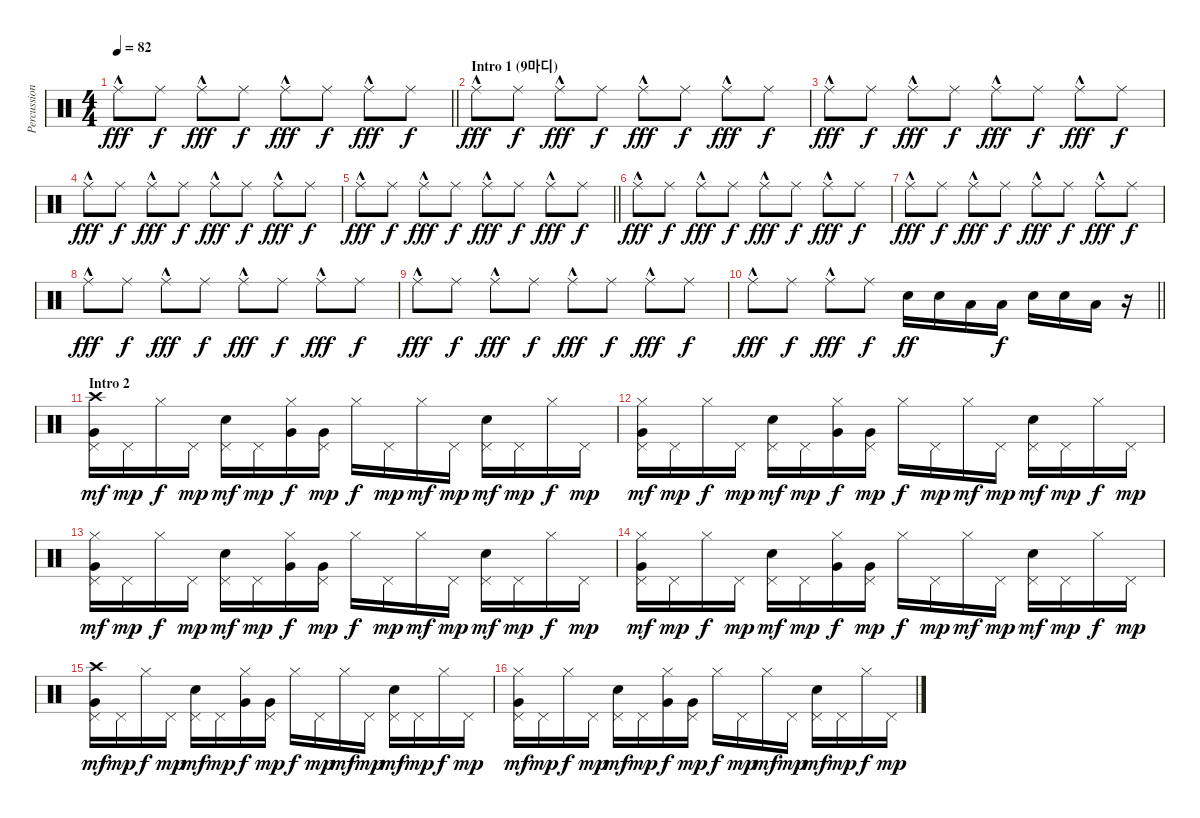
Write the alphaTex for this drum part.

\track ("Percussion" "Percussion") {instrument percussion}
\staff {score}
\articulation defaults
\ts (4 4)
\tempo 82
\clef neutral
\barLineRight lightlight
\ks c "Ride (middle)"{hac}.8{dy fff} "Ride (middle)".8{dy f} "Ride (middle)"{hac}.8{dy fff} "Ride (middle)".8{dy f} "Ride (middle)"{hac}.8{dy fff} "Ride (middle)".8{dy f} "Ride (middle)"{hac}.8{dy fff} "Ride (middle)".8{dy f}
|
\section ("" "Intro 1 (9마디)")
"Ride (middle)"{hac}.8{dy fff} "Ride (middle)".8{dy f} "Ride (middle)"{hac}.8{dy fff} "Ride (middle)".8{dy f} "Ride (middle)"{hac}.8{dy fff} "Ride (middle)".8{dy f} "Ride (middle)"{hac}.8{dy fff} "Ride (middle)".8{dy f} |
"Ride (middle)"{hac}.8{dy fff} "Ride (middle)".8{dy f} "Ride (middle)"{hac}.8{dy fff} "Ride (middle)".8{dy f} "Ride (middle)"{hac}.8{dy fff} "Ride (middle)".8{dy f} "Ride (middle)"{hac}.8{dy fff} "Ride (middle)".8{dy f} |
"Ride (middle)"{hac}.8{dy fff} "Ride (middle)".8{dy f} "Ride (middle)"{hac}.8{dy fff} "Ride (middle)".8{dy f} "Ride (middle)"{hac}.8{dy fff} "Ride (middle)".8{dy f} "Ride (middle)"{hac}.8{dy fff} "Ride (middle)".8{dy f} |
\barLineRight lightlight "Ride (middle)"{hac}.8{dy fff} "Ride (middle)".8{dy f} "Ride (middle)"{hac}.8{dy fff} "Ride (middle)".8{dy f} "Ride (middle)"{hac}.8{dy fff} "Ride (middle)".8{dy f} "Ride (middle)"{hac}.8{dy fff} "Ride (middle)".8{dy f}
|
"Ride (middle)"{hac}.8{dy fff} "Ride (middle)".8{dy f} "Ride (middle)"{hac}.8{dy fff} "Ride (middle)".8{dy f} "Ride (middle)"{hac}.8{dy fff} "Ride (middle)".8{dy f} "Ride (middle)"{hac}.8{dy fff} "Ride (middle)".8{dy f} |
"Ride (middle)"{hac}.8{dy fff} "Ride (middle)".8{dy f} "Ride (middle)"{hac}.8{dy fff} "Ride (middle)".8{dy f} "Ride (middle)"{hac}.8{dy fff} "Ride (middle)".8{dy f} "Ride (middle)"{hac}.8{dy fff} "Ride (middle)".8{dy f} |
"Ride (middle)"{hac}.8{dy fff} "Ride (middle)".8{dy f} "Ride (middle)"{hac}.8{dy fff} "Ride (middle)".8{dy f} "Ride (middle)"{hac}.8{dy fff} "Ride (middle)".8{dy f} "Ride (middle)"{hac}.8{dy fff} "Ride (middle)".8{dy f} |
"Ride (middle)"{hac}.8{dy fff} "Ride (middle)".8{dy f} "Ride (middle)"{hac}.8{dy fff} "Ride (middle)".8{dy f} "Ride (middle)"{hac}.8{dy fff} "Ride (middle)".8{dy f} "Ride (middle)"{hac}.8{dy fff} "Ride (middle)".8{dy f} |
\barLineRight lightlight "Ride (middle)"{hac}.8{dy fff} "Ride (middle)".8{dy f} "Ride (middle)"{hac}.8{dy fff} "Ride (middle)".8{dy f} "Electric Snare (hit)".16{dy ff} "Electric Snare (hit)".16 "Low Tom (hit)".16 "Low Tom (hit)".16{dy f} "Electric Snare (hit)".16 "Electric Snare (hit)".16 "Low Tom (hit)".16
r.16 |
\section ("" "Intro 2")
("Crash high (hit)" "Very Low Tom (hit)" "Pedal Hi-Hat (hit)").16{dy mf} "Pedal Hi-Hat (hit)".16{dy mp} "Hi-Hat (closed)".16{dy f} "Pedal Hi-Hat (hit)".16{dy mp} ("Electric Snare (hit)" "Pedal Hi-Hat (hit)").16{dy mf} "Pedal Hi-Hat (hit)".16{dy mp} ("Hi-Hat (closed)" "Very Low Tom (hit)").16{dy f} ("Very Low Tom (hit)" "Pedal Hi-Hat (hit)").16{dy mp} "Hi-Hat (closed)".16{dy f} "Pedal Hi-Hat (hit)".16{dy mp} "Hi-Hat (closed)".16{dy mf} "Pedal Hi-Hat (hit)".16{dy mp} ("Electric Snare (hit)" "Pedal Hi-Hat (hit)").16{dy mf} "Pedal Hi-Hat (hit)".16{dy mp} "Hi-Hat (closed)".16{dy f} "Pedal Hi-Hat (hit)".16{dy mp} |
("Hi-Hat (closed)" "Very Low Tom (hit)" "Pedal Hi-Hat (hit)").16{dy mf} "Pedal Hi-Hat (hit)".16{dy mp} "Hi-Hat (closed)".16{dy f} "Pedal Hi-Hat (hit)".16{dy mp} ("Electric Snare (hit)" "Pedal Hi-Hat (hit)").16{dy mf} "Pedal Hi-Hat (hit)".16{dy mp} ("Hi-Hat (closed)" "Very Low Tom (hit)").16{dy f} ("Very Low Tom (hit)" "Pedal Hi-Hat (hit)").16{dy mp} "Hi-Hat (closed)".16{dy f} "Pedal Hi-Hat (hit)".16{dy mp} "Hi-Hat (closed)".16{dy mf} "Pedal Hi-Hat (hit)".16{dy mp} ("Electric Snare (hit)" "Pedal Hi-Hat (hit)").16{dy mf} "Pedal Hi-Hat (hit)".16{dy mp} "Hi-Hat (closed)".16{dy f} "Pedal Hi-Hat (hit)".16{dy mp} |
("Hi-Hat (closed)" "Very Low Tom (hit)" "Pedal Hi-Hat (hit)").16{dy mf} "Pedal Hi-Hat (hit)".16{dy mp} "Hi-Hat (closed)".16{dy f} "Pedal Hi-Hat (hit)".16{dy mp} ("Electric Snare (hit)" "Pedal Hi-Hat (hit)").16{dy mf} "Pedal Hi-Hat (hit)".16{dy mp} ("Hi-Hat (closed)" "Very Low Tom (hit)").16{dy f} ("Very Low Tom (hit)" "Pedal Hi-Hat (hit)").16{dy mp} "Hi-Hat (closed)".16{dy f} "Pedal Hi-Hat (hit)".16{dy mp} "Hi-Hat (closed)".16{dy mf} "Pedal Hi-Hat (hit)".16{dy mp} ("Electric Snare (hit)" "Pedal Hi-Hat (hit)").16{dy mf} "Pedal Hi-Hat (hit)".16{dy mp} "Hi-Hat (closed)".16{dy f} "Pedal Hi-Hat (hit)".16{dy mp} |
("Hi-Hat (closed)" "Very Low Tom (hit)" "Pedal Hi-Hat (hit)").16{dy mf} "Pedal Hi-Hat (hit)".16{dy mp} "Hi-Hat (closed)".16{dy f} "Pedal Hi-Hat (hit)".16{dy mp} ("Electric Snare (hit)" "Pedal Hi-Hat (hit)").16{dy mf} "Pedal Hi-Hat (hit)".16{dy mp} ("Hi-Hat (closed)" "Very Low Tom (hit)").16{dy f} ("Very Low Tom (hit)" "Pedal Hi-Hat (hit)").16{dy mp} "Hi-Hat (closed)".16{dy f} "Pedal Hi-Hat (hit)".16{dy mp} "Hi-Hat (closed)".16{dy mf} "Pedal Hi-Hat (hit)".16{dy mp} ("Electric Snare (hit)" "Pedal Hi-Hat (hit)").16{dy mf} "Pedal Hi-Hat (hit)".16{dy mp} "Hi-Hat (closed)".16{dy f} "Pedal Hi-Hat (hit)".16{dy mp} |
("Crash high (hit)" "Very Low Tom (hit)" "Pedal Hi-Hat (hit)").16{dy mf} "Pedal Hi-Hat (hit)".16{dy mp} "Hi-Hat (closed)".16{dy f} "Pedal Hi-Hat (hit)".16{dy mp} ("Electric Snare (hit)" "Pedal Hi-Hat (hit)").16{dy mf} "Pedal Hi-Hat (hit)".16{dy mp} ("Hi-Hat (closed)" "Very Low Tom (hit)").16{dy f} ("Very Low Tom (hit)" "Pedal Hi-Hat (hit)").16{dy mp} "Hi-Hat (closed)".16{dy f} "Pedal Hi-Hat (hit)".16{dy mp} "Hi-Hat (closed)".16{dy mf} "Pedal Hi-Hat (hit)".16{dy mp} ("Electric Snare (hit)" "Pedal Hi-Hat (hit)").16{dy mf} "Pedal Hi-Hat (hit)".16{dy mp} "Hi-Hat (closed)".16{dy f} "Pedal Hi-Hat (hit)".16{dy mp} |
("Hi-Hat (closed)" "Very Low Tom (hit)" "Pedal Hi-Hat (hit)").16{dy mf} "Pedal Hi-Hat (hit)".16{dy mp} "Hi-Hat (closed)".16{dy f} "Pedal Hi-Hat (hit)".16{dy mp} ("Electric Snare (hit)" "Pedal Hi-Hat (hit)").16{dy mf} "Pedal Hi-Hat (hit)".16{dy mp} ("Hi-Hat (closed)" "Very Low Tom (hit)").16{dy f} ("Very Low Tom (hit)" "Pedal Hi-Hat (hit)").16{dy mp} "Hi-Hat (closed)".16{dy f} "Pedal Hi-Hat (hit)".16{dy mp} "Hi-Hat (closed)".16{dy mf} "Pedal Hi-Hat (hit)".16{dy mp} ("Electric Snare (hit)" "Pedal Hi-Hat (hit)").16{dy mf} "Pedal Hi-Hat (hit)".16{dy mp} "Hi-Hat (closed)".16{dy f} "Pedal Hi-Hat (hit)".16{dy mp}
